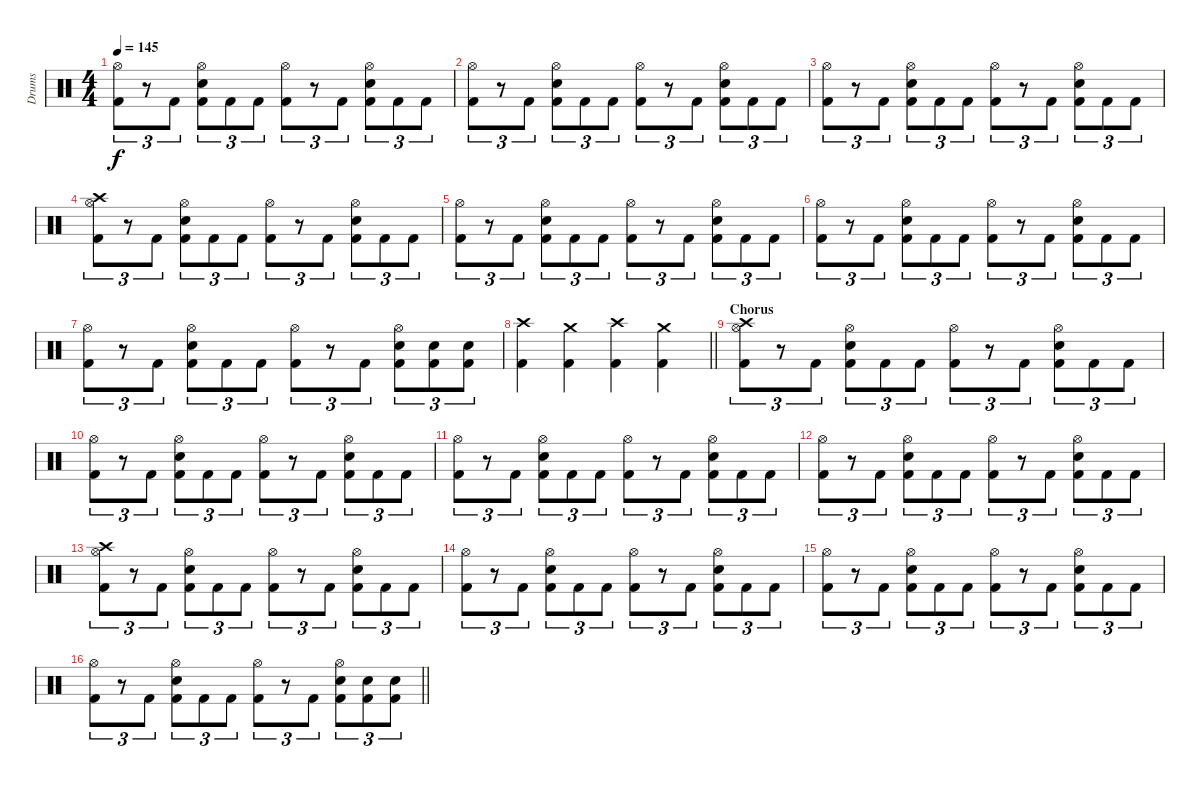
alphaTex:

\track ("Drums" "Drums") {instrument percussion}
\staff {score}
\articulation defaults
\ts (4 4)
\tempo 145
\clef neutral
\ks c
("Hi-Hat (open)" "Kick (hit) 2").8{tu (3 2) dy f} r.8{tu (3 2)} "Kick (hit) 2".8{tu (3 2)} ("Hi-Hat (open)" "Snare (hit) 2" "Kick (hit) 2").8{tu (3 2)} "Kick (hit) 2".8{tu (3 2)} "Kick (hit) 2".8{tu (3 2)} ("Hi-Hat (open)" "Kick (hit) 2").8{tu (3 2)} r.8{tu (3 2)} "Kick (hit) 2".8{tu (3 2)} ("Hi-Hat (open)" "Snare (hit) 2" "Kick (hit) 2").8{tu (3 2)} "Kick (hit) 2".8{tu (3 2)} "Kick (hit) 2".8{tu (3 2)} |
("Hi-Hat (open)" "Kick (hit) 2").8{tu (3 2)} r.8{tu (3 2)} "Kick (hit) 2".8{tu (3 2)} ("Hi-Hat (open)" "Snare (hit) 2" "Kick (hit) 2").8{tu (3 2)} "Kick (hit) 2".8{tu (3 2)} "Kick (hit) 2".8{tu (3 2)} ("Hi-Hat (open)" "Kick (hit) 2").8{tu (3 2)} r.8{tu (3 2)} "Kick (hit) 2".8{tu (3 2)} ("Hi-Hat (open)" "Snare (hit) 2" "Kick (hit) 2").8{tu (3 2)} "Kick (hit) 2".8{tu (3 2)} "Kick (hit) 2".8{tu (3 2)} |
("Hi-Hat (open)" "Kick (hit) 2").8{tu (3 2)} r.8{tu (3 2)} "Kick (hit) 2".8{tu (3 2)} ("Hi-Hat (open)" "Snare (hit) 2" "Kick (hit) 2").8{tu (3 2)} "Kick (hit) 2".8{tu (3 2)} "Kick (hit) 2".8{tu (3 2)} ("Hi-Hat (open)" "Kick (hit) 2").8{tu (3 2)} r.8{tu (3 2)} "Kick (hit) 2".8{tu (3 2)} ("Hi-Hat (open)" "Snare (hit) 2" "Kick (hit) 2").8{tu (3 2)} "Kick (hit) 2".8{tu (3 2)} "Kick (hit) 2".8{tu (3 2)} |
("Crash high (hit)" "Hi-Hat (open)" "Kick (hit) 2").8{tu (3 2)} r.8{tu (3 2)} "Kick (hit) 2".8{tu (3 2)} ("Hi-Hat (open)" "Snare (hit) 2" "Kick (hit) 2").8{tu (3 2)} "Kick (hit) 2".8{tu (3 2)} "Kick (hit) 2".8{tu (3 2)} ("Hi-Hat (open)" "Kick (hit) 2").8{tu (3 2)} r.8{tu (3 2)} "Kick (hit) 2".8{tu (3 2)} ("Hi-Hat (open)" "Snare (hit) 2" "Kick (hit) 2").8{tu (3 2)} "Kick (hit) 2".8{tu (3 2)} "Kick (hit) 2".8{tu (3 2)} |
("Hi-Hat (open)" "Kick (hit) 2").8{tu (3 2)} r.8{tu (3 2)} "Kick (hit) 2".8{tu (3 2)} ("Hi-Hat (open)" "Snare (hit) 2" "Kick (hit) 2").8{tu (3 2)} "Kick (hit) 2".8{tu (3 2)} "Kick (hit) 2".8{tu (3 2)} ("Hi-Hat (open)" "Kick (hit) 2").8{tu (3 2)} r.8{tu (3 2)} "Kick (hit) 2".8{tu (3 2)} ("Hi-Hat (open)" "Snare (hit) 2" "Kick (hit) 2").8{tu (3 2)} "Kick (hit) 2".8{tu (3 2)} "Kick (hit) 2".8{tu (3 2)} |
("Hi-Hat (open)" "Kick (hit) 2").8{tu (3 2)} r.8{tu (3 2)} "Kick (hit) 2".8{tu (3 2)} ("Hi-Hat (open)" "Snare (hit) 2" "Kick (hit) 2").8{tu (3 2)} "Kick (hit) 2".8{tu (3 2)} "Kick (hit) 2".8{tu (3 2)} ("Hi-Hat (open)" "Kick (hit) 2").8{tu (3 2)} r.8{tu (3 2)} "Kick (hit) 2".8{tu (3 2)} ("Hi-Hat (open)" "Snare (hit) 2" "Kick (hit) 2").8{tu (3 2)} "Kick (hit) 2".8{tu (3 2)} "Kick (hit) 2".8{tu (3 2)} |
("Hi-Hat (open)" "Kick (hit) 2").8{tu (3 2)} r.8{tu (3 2)} "Kick (hit) 2".8{tu (3 2)} ("Hi-Hat (open)" "Snare (hit) 2" "Kick (hit) 2").8{tu (3 2)} "Kick (hit) 2".8{tu (3 2)} "Kick (hit) 2".8{tu (3 2)} ("Hi-Hat (open)" "Kick (hit) 2").8{tu (3 2)} r.8{tu (3 2)} "Kick (hit) 2".8{tu (3 2)} ("Hi-Hat (open)" "Snare (hit) 2" "Kick (hit) 2").8{tu (3 2)} ("Snare (hit) 2" "Kick (hit) 2").8{tu (3 2)} ("Snare (hit) 2" "Kick (hit) 2").8{tu (3 2)} |
\barLineRight lightlight
("Crash high (hit)" "Kick (hit) 2").4 ("Crash medium (hit)" "Kick (hit) 2").4 ("Crash high (hit)" "Kick (hit) 2").4 ("Crash medium (hit)" "Kick (hit) 2").4 |
\section ("" "Chorus")
("Crash high (hit)" "Hi-Hat (open)" "Kick (hit) 2").8{tu (3 2)} r.8{tu (3 2)} "Kick (hit) 2".8{tu (3 2)} ("Hi-Hat (open)" "Snare (hit) 2" "Kick (hit) 2").8{tu (3 2)} "Kick (hit) 2".8{tu (3 2)} "Kick (hit) 2".8{tu (3 2)} ("Hi-Hat (open)" "Kick (hit) 2").8{tu (3 2)} r.8{tu (3 2)} "Kick (hit) 2".8{tu (3 2)} ("Hi-Hat (open)" "Snare (hit) 2" "Kick (hit) 2").8{tu (3 2)} "Kick (hit) 2".8{tu (3 2)} "Kick (hit) 2".8{tu (3 2)} |
("Hi-Hat (open)" "Kick (hit) 2").8{tu (3 2)} r.8{tu (3 2)} "Kick (hit) 2".8{tu (3 2)} ("Hi-Hat (open)" "Snare (hit) 2" "Kick (hit) 2").8{tu (3 2)} "Kick (hit) 2".8{tu (3 2)} "Kick (hit) 2".8{tu (3 2)} ("Hi-Hat (open)" "Kick (hit) 2").8{tu (3 2)} r.8{tu (3 2)} "Kick (hit) 2".8{tu (3 2)} ("Hi-Hat (open)" "Snare (hit) 2" "Kick (hit) 2").8{tu (3 2)} "Kick (hit) 2".8{tu (3 2)} "Kick (hit) 2".8{tu (3 2)} |
("Hi-Hat (open)" "Kick (hit) 2").8{tu (3 2)} r.8{tu (3 2)} "Kick (hit) 2".8{tu (3 2)} ("Hi-Hat (open)" "Snare (hit) 2" "Kick (hit) 2").8{tu (3 2)} "Kick (hit) 2".8{tu (3 2)} "Kick (hit) 2".8{tu (3 2)} ("Hi-Hat (open)" "Kick (hit) 2").8{tu (3 2)} r.8{tu (3 2)} "Kick (hit) 2".8{tu (3 2)} ("Hi-Hat (open)" "Snare (hit) 2" "Kick (hit) 2").8{tu (3 2)} "Kick (hit) 2".8{tu (3 2)} "Kick (hit) 2".8{tu (3 2)} |
("Hi-Hat (open)" "Kick (hit) 2").8{tu (3 2)} r.8{tu (3 2)} "Kick (hit) 2".8{tu (3 2)} ("Hi-Hat (open)" "Snare (hit) 2" "Kick (hit) 2").8{tu (3 2)} "Kick (hit) 2".8{tu (3 2)} "Kick (hit) 2".8{tu (3 2)} ("Hi-Hat (open)" "Kick (hit) 2").8{tu (3 2)} r.8{tu (3 2)} "Kick (hit) 2".8{tu (3 2)} ("Hi-Hat (open)" "Snare (hit) 2" "Kick (hit) 2").8{tu (3 2)} "Kick (hit) 2".8{tu (3 2)} "Kick (hit) 2".8{tu (3 2)} |
("Crash high (hit)" "Hi-Hat (open)" "Kick (hit) 2").8{tu (3 2)} r.8{tu (3 2)} "Kick (hit) 2".8{tu (3 2)} ("Hi-Hat (open)" "Snare (hit) 2" "Kick (hit) 2").8{tu (3 2)} "Kick (hit) 2".8{tu (3 2)} "Kick (hit) 2".8{tu (3 2)} ("Hi-Hat (open)" "Kick (hit) 2").8{tu (3 2)} r.8{tu (3 2)} "Kick (hit) 2".8{tu (3 2)} ("Hi-Hat (open)" "Snare (hit) 2" "Kick (hit) 2").8{tu (3 2)} "Kick (hit) 2".8{tu (3 2)} "Kick (hit) 2".8{tu (3 2)} |
("Hi-Hat (open)" "Kick (hit) 2").8{tu (3 2)} r.8{tu (3 2)} "Kick (hit) 2".8{tu (3 2)} ("Hi-Hat (open)" "Snare (hit) 2" "Kick (hit) 2").8{tu (3 2)} "Kick (hit) 2".8{tu (3 2)} "Kick (hit) 2".8{tu (3 2)} ("Hi-Hat (open)" "Kick (hit) 2").8{tu (3 2)} r.8{tu (3 2)} "Kick (hit) 2".8{tu (3 2)} ("Hi-Hat (open)" "Snare (hit) 2" "Kick (hit) 2").8{tu (3 2)} "Kick (hit) 2".8{tu (3 2)} "Kick (hit) 2".8{tu (3 2)} |
("Hi-Hat (open)" "Kick (hit) 2").8{tu (3 2)} r.8{tu (3 2)} "Kick (hit) 2".8{tu (3 2)} ("Hi-Hat (open)" "Snare (hit) 2" "Kick (hit) 2").8{tu (3 2)} "Kick (hit) 2".8{tu (3 2)} "Kick (hit) 2".8{tu (3 2)} ("Hi-Hat (open)" "Kick (hit) 2").8{tu (3 2)} r.8{tu (3 2)} "Kick (hit) 2".8{tu (3 2)} ("Hi-Hat (open)" "Snare (hit) 2" "Kick (hit) 2").8{tu (3 2)} "Kick (hit) 2".8{tu (3 2)} "Kick (hit) 2".8{tu (3 2)} |
\barLineRight lightlight
("Hi-Hat (open)" "Kick (hit) 2").8{tu (3 2)} r.8{tu (3 2)} "Kick (hit) 2".8{tu (3 2)} ("Hi-Hat (open)" "Snare (hit) 2" "Kick (hit) 2").8{tu (3 2)} "Kick (hit) 2".8{tu (3 2)} "Kick (hit) 2".8{tu (3 2)} ("Hi-Hat (open)" "Kick (hit) 2").8{tu (3 2)} r.8{tu (3 2)} "Kick (hit) 2".8{tu (3 2)} ("Hi-Hat (open)" "Snare (hit) 2" "Kick (hit) 2").8{tu (3 2)} ("Snare (hit) 2" "Kick (hit) 2").8{tu (3 2)} ("Snare (hit) 2" "Kick (hit) 2").8{tu (3 2)}
